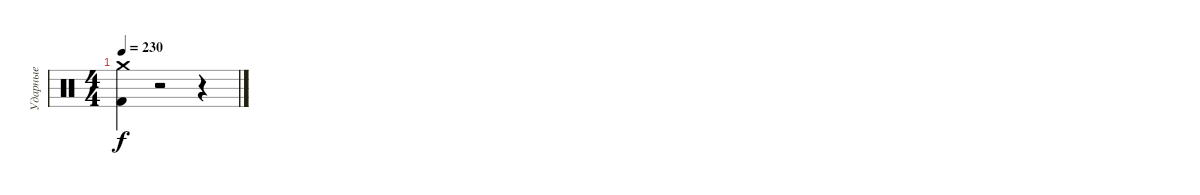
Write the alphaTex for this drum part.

\track ("Ударные" "Ударные") {instrument percussion}
\staff {score}
\articulation defaults
\ts (4 4)
\tempo 230
\clef neutral
\ks c
("Crash medium (hit)" "Kick (hit) 2").4{dy f} r.2 r.4
